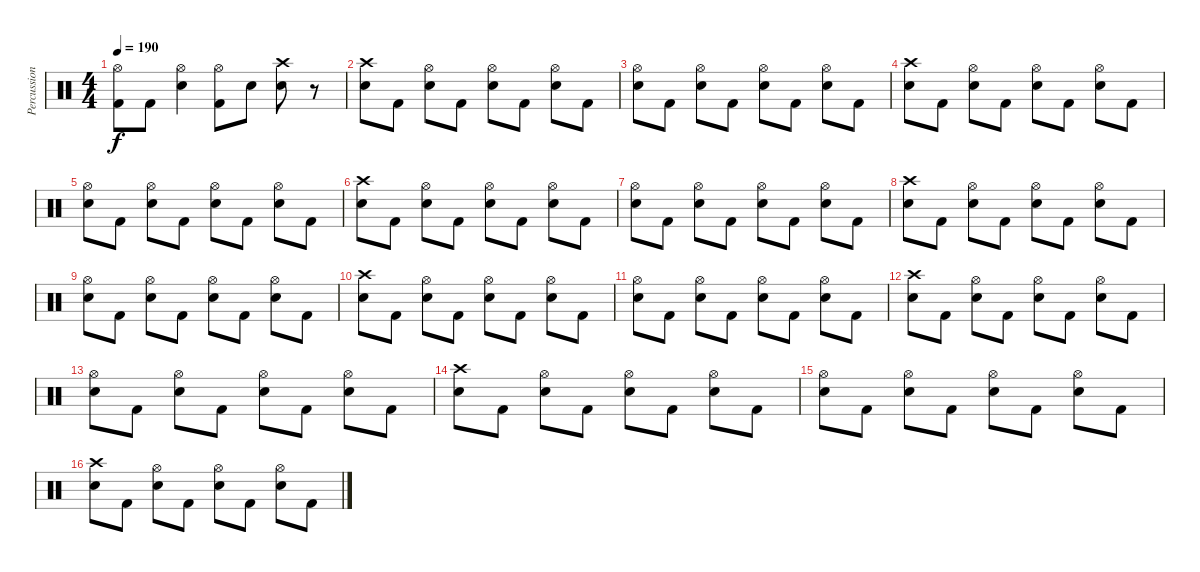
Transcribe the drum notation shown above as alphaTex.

\track ("Percussion" "Percussion") {instrument percussion}
\staff {score}
\articulation defaults
\ts (4 4)
\tempo 190
\clef neutral
\ks c
("Hi-Hat (open)" "Kick (hit) 2").8{dy f} "Kick (hit) 2".8 ("Hi-Hat (open)" "Electric Snare (hit)").4 ("Hi-Hat (open)" "Kick (hit) 2").8 "Electric Snare (hit)".8 ("Crash high (hit)" "Electric Snare (hit)").8 r.8 |
("Crash high (hit)" "Electric Snare (hit)").8 "Kick (hit) 2".8 ("Hi-Hat (open)" "Electric Snare (hit)").8 "Kick (hit) 2".8 ("Hi-Hat (open)" "Electric Snare (hit)").8 "Kick (hit) 2".8 ("Hi-Hat (open)" "Electric Snare (hit)").8 "Kick (hit) 2".8 |
("Hi-Hat (open)" "Electric Snare (hit)").8 "Kick (hit) 2".8 ("Hi-Hat (open)" "Electric Snare (hit)").8 "Kick (hit) 2".8 ("Hi-Hat (open)" "Electric Snare (hit)").8 "Kick (hit) 2".8 ("Hi-Hat (open)" "Electric Snare (hit)").8 "Kick (hit) 2".8 |
("Crash high (hit)" "Electric Snare (hit)").8 "Kick (hit) 2".8 ("Hi-Hat (open)" "Electric Snare (hit)").8 "Kick (hit) 2".8 ("Hi-Hat (open)" "Electric Snare (hit)").8 "Kick (hit) 2".8 ("Hi-Hat (open)" "Electric Snare (hit)").8 "Kick (hit) 2".8 |
("Hi-Hat (open)" "Electric Snare (hit)").8 "Kick (hit) 2".8 ("Hi-Hat (open)" "Electric Snare (hit)").8 "Kick (hit) 2".8 ("Hi-Hat (open)" "Electric Snare (hit)").8 "Kick (hit) 2".8 ("Hi-Hat (open)" "Electric Snare (hit)").8 "Kick (hit) 2".8 |
("Crash high (hit)" "Electric Snare (hit)").8 "Kick (hit) 2".8 ("Hi-Hat (open)" "Electric Snare (hit)").8 "Kick (hit) 2".8 ("Hi-Hat (open)" "Electric Snare (hit)").8 "Kick (hit) 2".8 ("Hi-Hat (open)" "Electric Snare (hit)").8 "Kick (hit) 2".8 |
("Hi-Hat (open)" "Electric Snare (hit)").8 "Kick (hit) 2".8 ("Hi-Hat (open)" "Electric Snare (hit)").8 "Kick (hit) 2".8 ("Hi-Hat (open)" "Electric Snare (hit)").8 "Kick (hit) 2".8 ("Hi-Hat (open)" "Electric Snare (hit)").8 "Kick (hit) 2".8 |
("Crash high (hit)" "Electric Snare (hit)").8 "Kick (hit) 2".8 ("Hi-Hat (open)" "Electric Snare (hit)").8 "Kick (hit) 2".8 ("Hi-Hat (open)" "Electric Snare (hit)").8 "Kick (hit) 2".8 ("Hi-Hat (open)" "Electric Snare (hit)").8 "Kick (hit) 2".8 |
("Hi-Hat (open)" "Electric Snare (hit)").8 "Kick (hit) 2".8 ("Hi-Hat (open)" "Electric Snare (hit)").8 "Kick (hit) 2".8 ("Hi-Hat (open)" "Electric Snare (hit)").8 "Kick (hit) 2".8 ("Hi-Hat (open)" "Electric Snare (hit)").8 "Kick (hit) 2".8 |
("Crash high (hit)" "Electric Snare (hit)").8 "Kick (hit) 2".8 ("Hi-Hat (open)" "Electric Snare (hit)").8 "Kick (hit) 2".8 ("Hi-Hat (open)" "Electric Snare (hit)").8 "Kick (hit) 2".8 ("Hi-Hat (open)" "Electric Snare (hit)").8 "Kick (hit) 2".8 |
("Hi-Hat (open)" "Electric Snare (hit)").8 "Kick (hit) 2".8 ("Hi-Hat (open)" "Electric Snare (hit)").8 "Kick (hit) 2".8 ("Hi-Hat (open)" "Electric Snare (hit)").8 "Kick (hit) 2".8 ("Hi-Hat (open)" "Electric Snare (hit)").8 "Kick (hit) 2".8 |
("Crash high (hit)" "Electric Snare (hit)").8 "Kick (hit) 2".8 ("Hi-Hat (open)" "Electric Snare (hit)").8 "Kick (hit) 2".8 ("Hi-Hat (open)" "Electric Snare (hit)").8 "Kick (hit) 2".8 ("Hi-Hat (open)" "Electric Snare (hit)").8 "Kick (hit) 2".8 |
("Hi-Hat (open)" "Electric Snare (hit)").8 "Kick (hit) 2".8 ("Hi-Hat (open)" "Electric Snare (hit)").8 "Kick (hit) 2".8 ("Hi-Hat (open)" "Electric Snare (hit)").8 "Kick (hit) 2".8 ("Hi-Hat (open)" "Electric Snare (hit)").8 "Kick (hit) 2".8 |
("Crash high (hit)" "Electric Snare (hit)").8 "Kick (hit) 2".8 ("Hi-Hat (open)" "Electric Snare (hit)").8 "Kick (hit) 2".8 ("Hi-Hat (open)" "Electric Snare (hit)").8 "Kick (hit) 2".8 ("Hi-Hat (open)" "Electric Snare (hit)").8 "Kick (hit) 2".8 |
("Hi-Hat (open)" "Electric Snare (hit)").8 "Kick (hit) 2".8 ("Hi-Hat (open)" "Electric Snare (hit)").8 "Kick (hit) 2".8 ("Hi-Hat (open)" "Electric Snare (hit)").8 "Kick (hit) 2".8 ("Hi-Hat (open)" "Electric Snare (hit)").8 "Kick (hit) 2".8 |
("Crash high (hit)" "Electric Snare (hit)").8 "Kick (hit) 2".8 ("Hi-Hat (open)" "Electric Snare (hit)").8 "Kick (hit) 2".8 ("Hi-Hat (open)" "Electric Snare (hit)").8 "Kick (hit) 2".8 ("Hi-Hat (open)" "Electric Snare (hit)").8 "Kick (hit) 2".8
